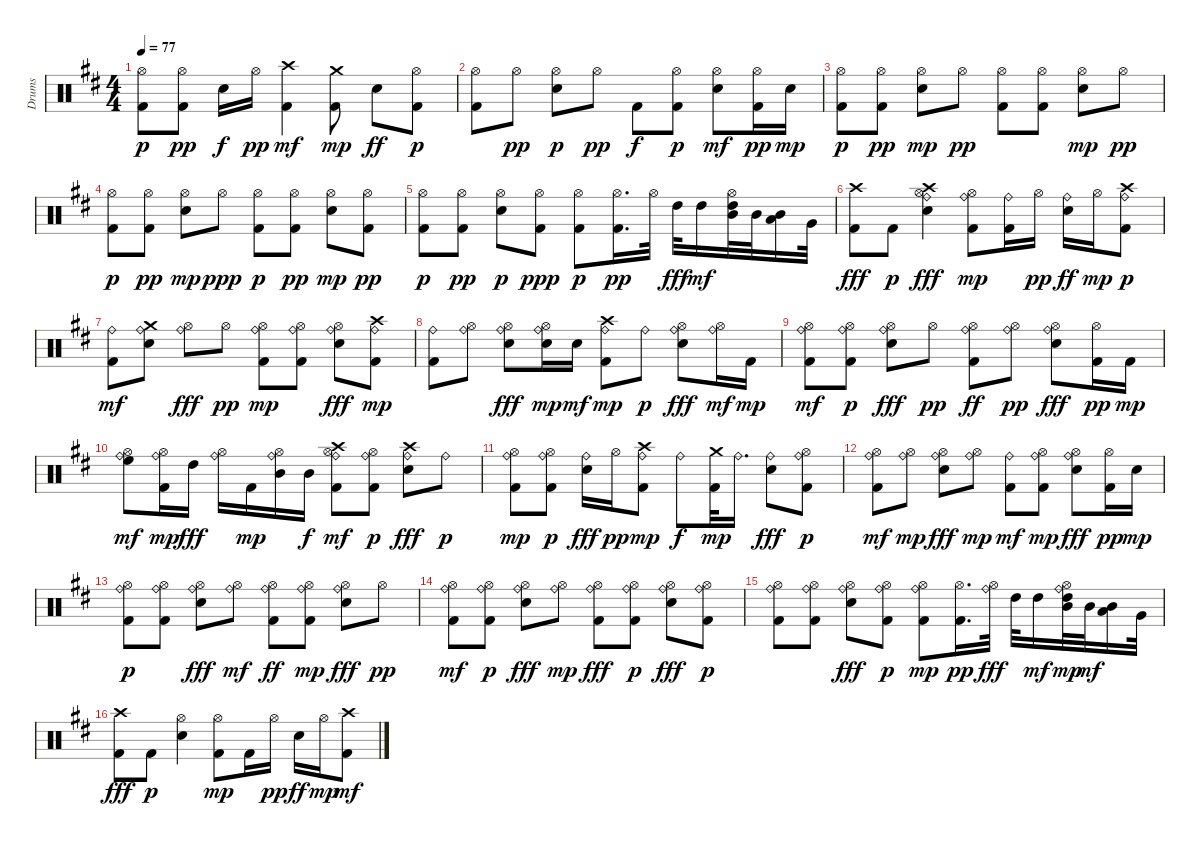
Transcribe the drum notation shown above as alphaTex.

\track ("Drums" "Drums") {instrument percussion}
\staff {score}
\articulation defaults
\ts (4 4)
\tempo 77
\clef neutral
\ks d
("Kick (hit) 2" "Hi-Hat (open)").8{dy p} ("Kick (hit) 2" "Hi-Hat (open)").8{dy pp} "Snare (hit) 2".16{dy f} "Hi-Hat (open)".16{dy pp} ("Kick (hit) 2" "Crash high (hit)").4{dy mf} ("Kick (hit) 2" "Crash medium (hit)").8{dy mp} "Snare (hit) 2".8{dy ff} ("Kick (hit) 2" "Hi-Hat (open)").8{dy p} |
("Kick (hit) 2" "Hi-Hat (open)").8 "Hi-Hat (open)".8{dy pp} ("Snare (hit) 2" "Hi-Hat (open)").8{dy p} "Hi-Hat (open)".8{dy pp} "Kick (hit) 2".8{dy f} ("Kick (hit) 2" "Hi-Hat (open)").8{dy p} ("Snare (hit) 2" "Hi-Hat (open)").8{dy mf} ("Kick (hit) 2" "Hi-Hat (open)").16{dy pp} "Snare (hit) 2".16{dy mp} |
("Kick (hit) 2" "Hi-Hat (open)").8{dy p} ("Kick (hit) 2" "Hi-Hat (open)").8{dy pp} ("Snare (hit) 2" "Hi-Hat (open)").8{dy mp} "Hi-Hat (open)".8{dy pp} ("Kick (hit) 2" "Hi-Hat (open)").8 ("Kick (hit) 2" "Hi-Hat (open)").8 ("Snare (hit) 2" "Hi-Hat (open)").8{dy mp} "Hi-Hat (open)".8{dy pp} |
("Kick (hit) 2" "Hi-Hat (open)").8{dy p} ("Kick (hit) 2" "Hi-Hat (open)").8{dy pp} ("Snare (hit) 2" "Hi-Hat (open)").8{dy mp} "Hi-Hat (open)".8{dy ppp} ("Kick (hit) 2" "Hi-Hat (open)").8{dy p} ("Kick (hit) 2" "Hi-Hat (open)").8{dy pp} ("Snare (hit) 2" "Hi-Hat (open)").8{dy mp} ("Kick (hit) 2" "Hi-Hat (open)").8{dy pp} |
("Kick (hit) 2" "Hi-Hat (open)").8{dy p} ("Kick (hit) 2" "Hi-Hat (open)").8{dy pp} ("Snare (hit) 2" "Hi-Hat (open)").8{dy p} ("Kick (hit) 2" "Hi-Hat (open)").8{dy ppp} ("Kick (hit) 2" "Hi-Hat (open)").8{dy p} ("Kick (hit) 2" "Hi-Hat (open)").16{d dy pp} "Hi-Hat (open)".32 "High Tom (hit)".32{dy fff} "High Tom (hit)".16{dy mf} ("Hi-Hat (open)" "Mid Tom (hit)" "High Tom (hit)").32 "Mid Tom (hit)".32 ("Low Tom (hit)" "Mid Tom (hit)").16 "Very Low Tom (hit)".32 |
("Kick (hit) 2" "Crash high (hit)").8{dy fff} "Kick (hit) 2".8{dy p} ("Snare (hit) 2" "Hi-Hat (open)" "Crash high (hit)" "Ride (bell)").4{dy fff} ("Kick (hit) 2" "Hi-Hat (open)" "Ride (bell)").8{dy mp} ("Kick (hit) 2" "Ride (bell)").16 "Hi-Hat (open)".16{dy pp} ("Snare (hit) 2" "Ride (bell)").16{dy ff} "Hi-Hat (open)".16{dy mp} ("Kick (hit) 2" "Crash high (hit)" "Ride (bell)").8{dy p} |
("Kick (hit) 2" "Ride (bell)").8{dy mf} ("Snare (hit) 2" "Ride (bell)" "Crash medium (hit)").8 ("Hi-Hat (open)" "Ride (bell)").8{dy fff} "Hi-Hat (open)".8{dy pp} ("Kick (hit) 2" "Hi-Hat (open)" "Ride (bell)").8{dy mp} ("Kick (hit) 2" "Hi-Hat (open)" "Ride (bell)").8 ("Snare (hit) 2" "Hi-Hat (open)" "Ride (bell)").8{dy fff} ("Kick (hit) 2" "Crash high (hit)" "Ride (bell)").8{dy mp} |
("Kick (hit) 2" "Ride (bell)").8 ("Hi-Hat (open)" "Ride (bell)").8 ("Snare (hit) 2" "Hi-Hat (open)" "Ride (bell)").8{dy fff} ("Snare (hit) 2" "Hi-Hat (open)" "Ride (bell)").16{dy mp} "Snare (hit) 2".16{dy mf} ("Kick (hit) 2" "Crash high (hit)" "Ride (bell)").8{dy mp} "Ride (bell)".8{dy p} ("Snare (hit) 2" "Hi-Hat (open)" "Ride (bell)").8{dy fff} ("Hi-Hat (open)" "Ride (bell)").16{dy mf} "Kick (hit) 2".16{dy mp} |
("Kick (hit) 2" "Hi-Hat (open)" "Ride (bell)").8{dy mf} ("Kick (hit) 2" "Hi-Hat (open)" "Ride (bell)").8{dy p} ("Snare (hit) 2" "Hi-Hat (open)" "Ride (bell)").8{dy fff} "Hi-Hat (open)".8{dy pp} ("Kick (hit) 2" "Hi-Hat (open)" "Ride (bell)").8{dy ff} ("Hi-Hat (open)" "Ride (bell)").8{dy pp} ("Snare (hit) 2" "Hi-Hat (open)" "Ride (bell)").8{dy fff} ("Kick (hit) 2" "Hi-Hat (open)").16{dy pp} "Kick (hit) 2".16{dy mp} |
("Hi-Hat (open)" "High Floor Tom (hit)" "Ride (bell)").8{dy mf} ("Kick (hit) 2" "Hi-Hat (open)" "Ride (bell)").16{dy mp} "High Tom (hit)".16{dy fff} ("Hi-Hat (open)" "Ride (bell)").16 "Kick (hit) 2".16{dy mp} ("Hi-Hat (open)" "Mid Tom (hit)" "Ride (bell)").16 "Mid Tom (hit)".16{dy f} ("Kick (hit) 2" "Hi-Hat (open)" "Crash high (hit)" "Ride (bell)").8{dy mf} ("Kick (hit) 2" "Hi-Hat (open)" "Ride (bell)").8{dy p} ("Snare (hit) 2" "Crash high (hit)" "Ride (bell)").8{dy fff} "Ride (bell)".8{dy p} |
("Kick (hit) 2" "Hi-Hat (open)" "Ride (bell)").8{dy mp} ("Kick (hit) 2" "Hi-Hat (open)" "Ride (bell)").8{dy p} ("Snare (hit) 2" "Ride (bell)").16{dy fff} "Hi-Hat (open)".16{dy pp} ("Kick (hit) 2" "Crash high (hit)" "Ride (bell)").8{dy mp} "Ride (bell)".8{dy f} ("Kick (hit) 2" "Crash medium (hit)").32{dy mp} "Ride (bell)".16{d} ("Snare (hit) 2" "Ride (bell)").8{dy fff} ("Kick (hit) 2" "Hi-Hat (open)" "Ride (bell)").8{dy p} |
("Kick (hit) 2" "Hi-Hat (open)" "Ride (bell)").8{dy mf} ("Hi-Hat (open)" "Ride (bell)").8{dy mp} ("Snare (hit) 2" "Hi-Hat (open)" "Ride (bell)").8{dy fff} ("Hi-Hat (open)" "Ride (bell)").8{dy mp} ("Kick (hit) 2" "Ride (bell)").8{dy mf} ("Kick (hit) 2" "Hi-Hat (open)" "Ride (bell)").8{dy mp} ("Snare (hit) 2" "Hi-Hat (open)" "Ride (bell)").8{dy fff} ("Kick (hit) 2" "Hi-Hat (open)").16{dy pp} "Snare (hit) 2".16{dy mp} |
("Kick (hit) 2" "Hi-Hat (open)" "Ride (bell)").8{dy p} ("Kick (hit) 2" "Hi-Hat (open)" "Ride (bell)").8 ("Snare (hit) 2" "Hi-Hat (open)" "Ride (bell)").8{dy fff} ("Hi-Hat (open)" "Ride (bell)").8{dy mf} ("Kick (hit) 2" "Hi-Hat (open)" "Ride (bell)").8{dy ff} ("Kick (hit) 2" "Hi-Hat (open)" "Ride (bell)").8{dy mp} ("Snare (hit) 2" "Hi-Hat (open)" "Ride (bell)").8{dy fff} "Hi-Hat (open)".8{dy pp} |
("Kick (hit) 2" "Hi-Hat (open)" "Ride (bell)").8{dy mf} ("Kick (hit) 2" "Hi-Hat (open)" "Ride (bell)").8{dy p} ("Snare (hit) 2" "Hi-Hat (open)" "Ride (bell)").8{dy fff} ("Hi-Hat (open)" "Ride (bell)").8{dy mp} ("Kick (hit) 2" "Hi-Hat (open)" "Ride (bell)").8{dy fff} ("Kick (hit) 2" "Hi-Hat (open)" "Ride (bell)").8{dy p} ("Snare (hit) 2" "Hi-Hat (open)" "Ride (bell)").8{dy fff} ("Kick (hit) 2" "Hi-Hat (open)" "Ride (bell)").8{dy p} |
("Kick (hit) 2" "Hi-Hat (open)" "Ride (bell)").8 ("Kick (hit) 2" "Hi-Hat (open)" "Ride (bell)").8 ("Snare (hit) 2" "Hi-Hat (open)" "Ride (bell)").8{dy fff} ("Kick (hit) 2" "Hi-Hat (open)" "Ride (bell)").8{dy p} ("Kick (hit) 2" "Hi-Hat (open)" "Ride (bell)").8{dy mp} ("Kick (hit) 2" "Hi-Hat (open)").16{d dy pp} ("Hi-Hat (open)" "Ride (bell)").32{dy fff} "High Tom (hit)".32 "High Tom (hit)".16{dy mf} ("Hi-Hat (open)" "Mid Tom (hit)" "High Tom (hit)" "Ride (bell)").32{dy mp} "Mid Tom (hit)".32{dy mf} ("Low Tom (hit)" "Mid Tom (hit)").16 "Very Low Tom (hit)".32 |
("Kick (hit) 2" "Crash high (hit)").8{dy fff} "Kick (hit) 2".8{dy p} ("Snare (hit) 2" "Hi-Hat (open)").4 ("Kick (hit) 2" "Hi-Hat (open)").8{dy mp} "Kick (hit) 2".16 "Hi-Hat (open)".16{dy pp} "Snare (hit) 2".16{dy ff} "Hi-Hat (open)".16{dy mp} ("Kick (hit) 2" "Crash high (hit)").8{dy mf}
